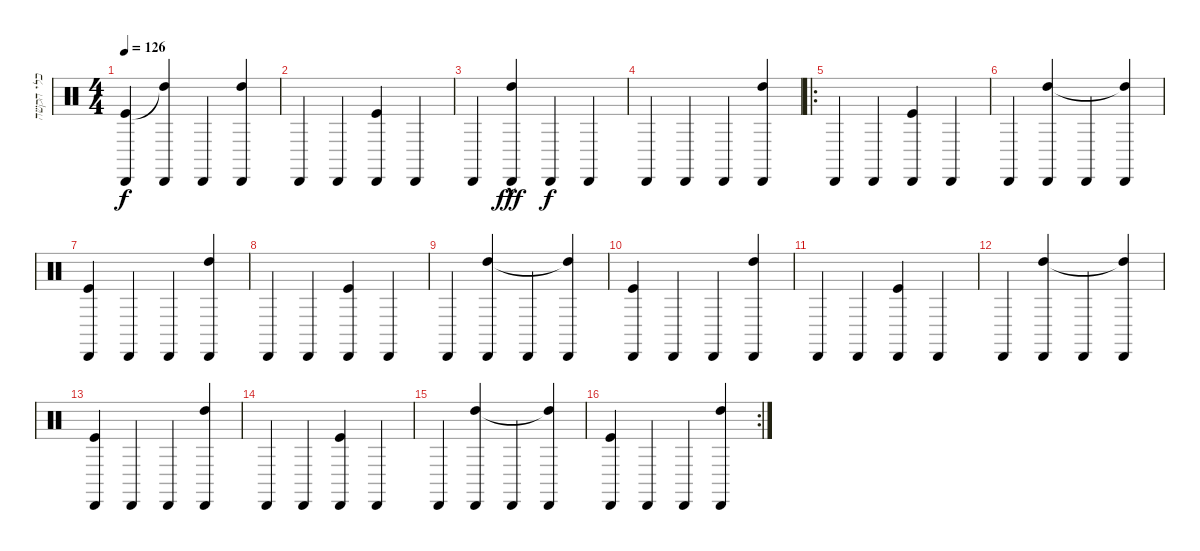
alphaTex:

\track ("כלי הקשה" "כלי הקשה") {instrument percussion}
\staff {score}
\articulation defaults
\ts (4 4)
\tempo 126
\clef neutral
\ks c
("Cabasa (hit)" "Kick (hit)").4{dy f} ("Cabasa (hit)" "High Tom (hit)"{t}).4 "Cabasa (hit)".4 ("Cabasa (hit)" "High Tom (hit)").4 |
"Cabasa (hit)".4 "Cabasa (hit)".4 ("Cabasa (hit)" "Kick (hit)").4 "Cabasa (hit)".4 |
"Cabasa (hit)".4 ("Cabasa (hit)" "High Tom (hit)"{hac}).4{dy fff} "Cabasa (hit)".4{dy f} "Cabasa (hit)".4 |
"Cabasa (hit)".4 "Cabasa (hit)".4 "Cabasa (hit)".4 ("Cabasa (hit)" "High Tom (hit)").4 |
\ro "Cabasa (hit)".4 "Cabasa (hit)".4
("Cabasa (hit)" "Kick (hit)").4 "Cabasa (hit)".4 |
"Cabasa (hit)".4 ("Cabasa (hit)" "High Tom (hit)").4 "Cabasa (hit)".4 ("Cabasa (hit)" "High Tom (hit)"{t}).4 |
("Cabasa (hit)" "Kick (hit)").4 "Cabasa (hit)".4 "Cabasa (hit)".4 ("Cabasa (hit)" "High Tom (hit)").4 |
"Cabasa (hit)".4 "Cabasa (hit)".4 ("Cabasa (hit)" "Kick (hit)").4 "Cabasa (hit)".4 |
"Cabasa (hit)".4 ("Cabasa (hit)" "High Tom (hit)").4 "Cabasa (hit)".4 ("Cabasa (hit)" "High Tom (hit)"{t}).4 |
("Cabasa (hit)" "Kick (hit)").4 "Cabasa (hit)".4 "Cabasa (hit)".4 ("Cabasa (hit)" "High Tom (hit)").4 |
"Cabasa (hit)".4 "Cabasa (hit)".4 ("Cabasa (hit)" "Kick (hit)").4 "Cabasa (hit)".4 |
"Cabasa (hit)".4 ("Cabasa (hit)" "High Tom (hit)").4 "Cabasa (hit)".4 ("Cabasa (hit)" "High Tom (hit)"{t}).4 |
("Cabasa (hit)" "Kick (hit)").4 "Cabasa (hit)".4 "Cabasa (hit)".4 ("Cabasa (hit)" "High Tom (hit)").4 |
"Cabasa (hit)".4 "Cabasa (hit)".4 ("Cabasa (hit)" "Kick (hit)").4 "Cabasa (hit)".4 |
"Cabasa (hit)".4 ("Cabasa (hit)" "High Tom (hit)").4 "Cabasa (hit)".4 ("Cabasa (hit)" "High Tom (hit)"{t}).4 |
\rc 2
("Cabasa (hit)" "Kick (hit)").4 "Cabasa (hit)".4 "Cabasa (hit)".4 ("Cabasa (hit)" "High Tom (hit)").4
